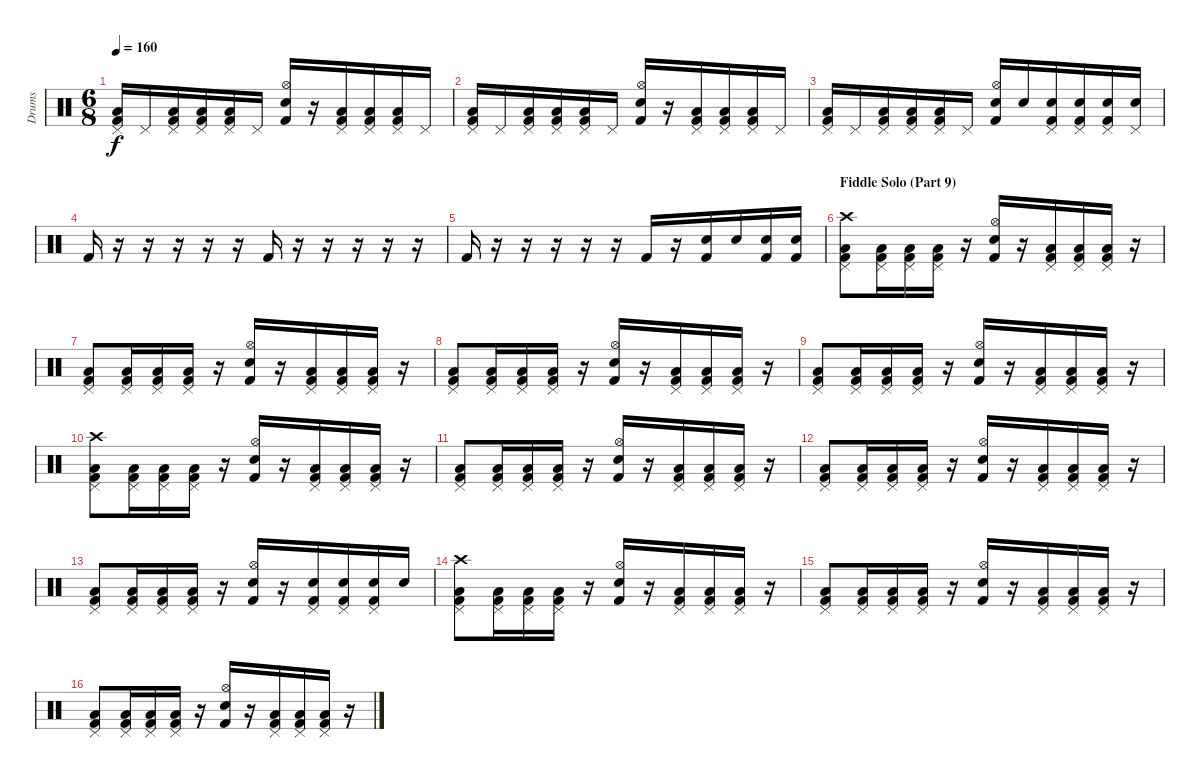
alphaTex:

\track ("Drums" "Drums") {instrument percussion}
\staff {score}
\articulation defaults
\ts (6 8)
\tempo 160
\clef neutral
\ks c
("Pedal Hi-Hat (hit)" "Low Floor Tom (hit)" "Kick (hit) 2").16{dy f} "Pedal Hi-Hat (hit)".16 ("Pedal Hi-Hat (hit)" "Low Floor Tom (hit)" "Kick (hit) 2").16 ("Pedal Hi-Hat (hit)" "Low Floor Tom (hit)" "Kick (hit) 2").16 ("Pedal Hi-Hat (hit)" "Low Floor Tom (hit)" "Kick (hit) 2").16 "Pedal Hi-Hat (hit)".16 ("Hi-Hat (open)" "Snare (hit) 2" "Kick (hit) 2").16 r.16 ("Pedal Hi-Hat (hit)" "Low Floor Tom (hit)" "Kick (hit) 2").16 ("Pedal Hi-Hat (hit)" "Low Floor Tom (hit)" "Kick (hit) 2").16 ("Pedal Hi-Hat (hit)" "Low Floor Tom (hit)" "Kick (hit) 2").16 "Pedal Hi-Hat (hit)".16 |
("Pedal Hi-Hat (hit)" "Low Floor Tom (hit)" "Kick (hit) 2").16 "Pedal Hi-Hat (hit)".16 ("Pedal Hi-Hat (hit)" "Low Floor Tom (hit)" "Kick (hit) 2").16 ("Pedal Hi-Hat (hit)" "Low Floor Tom (hit)" "Kick (hit) 2").16 ("Pedal Hi-Hat (hit)" "Low Floor Tom (hit)" "Kick (hit) 2").16 "Pedal Hi-Hat (hit)".16 ("Hi-Hat (open)" "Snare (hit) 2" "Kick (hit) 2").16 r.16 ("Pedal Hi-Hat (hit)" "Low Floor Tom (hit)" "Kick (hit) 2").16 ("Pedal Hi-Hat (hit)" "Low Floor Tom (hit)" "Kick (hit) 2").16 ("Pedal Hi-Hat (hit)" "Low Floor Tom (hit)" "Kick (hit) 2").16 "Pedal Hi-Hat (hit)".16 |
("Pedal Hi-Hat (hit)" "Low Floor Tom (hit)" "Kick (hit) 2").16 "Pedal Hi-Hat (hit)".16 ("Pedal Hi-Hat (hit)" "Low Floor Tom (hit)" "Kick (hit) 2").16 ("Pedal Hi-Hat (hit)" "Low Floor Tom (hit)" "Kick (hit) 2").16 ("Pedal Hi-Hat (hit)" "Low Floor Tom (hit)" "Kick (hit) 2").16 "Pedal Hi-Hat (hit)".16 ("Hi-Hat (open)" "Electric Snare (hit)" "Kick (hit) 2").16 "Electric Snare (hit)".16 ("Pedal Hi-Hat (hit)" "Electric Snare (hit)" "Kick (hit) 2").16 ("Pedal Hi-Hat (hit)" "Electric Snare (hit)" "Kick (hit) 2").16 ("Pedal Hi-Hat (hit)" "Electric Snare (hit)" "Kick (hit) 2").16 ("Pedal Hi-Hat (hit)" "Electric Snare (hit)").16 |
"Kick (hit) 2".16 r.16 r.16 r.16 r.16 r.16 "Kick (hit) 2".16 r.16 r.16 r.16 r.16 r.16 |
"Kick (hit) 2".16 r.16 r.16 r.16 r.16 r.16 "Kick (hit) 2".16 r.16 ("Electric Snare (hit)" "Kick (hit) 2").16 "Electric Snare (hit)".16 ("Electric Snare (hit)" "Kick (hit) 2").16 ("Electric Snare (hit)" "Kick (hit) 2").16 |
\section ("" "Fiddle Solo (Part 9)")
("Crash high (hit)" "Pedal Hi-Hat (hit)" "Low Floor Tom (hit)" "Kick (hit) 2").8 ("Pedal Hi-Hat (hit)" "Low Floor Tom (hit)" "Kick (hit) 2").16 ("Pedal Hi-Hat (hit)" "Low Floor Tom (hit)" "Kick (hit) 2").16 ("Pedal Hi-Hat (hit)" "Low Floor Tom (hit)" "Kick (hit) 2").16 r.16 ("Hi-Hat (open)" "Snare (hit) 2" "Kick (hit) 2").16 r.16 ("Pedal Hi-Hat (hit)" "Low Floor Tom (hit)" "Kick (hit) 2").16 ("Pedal Hi-Hat (hit)" "Low Floor Tom (hit)" "Kick (hit) 2").16 ("Pedal Hi-Hat (hit)" "Low Floor Tom (hit)" "Kick (hit) 2").16 r.16 |
("Pedal Hi-Hat (hit)" "Low Floor Tom (hit)" "Kick (hit) 2").8 ("Pedal Hi-Hat (hit)" "Low Floor Tom (hit)" "Kick (hit) 2").16 ("Pedal Hi-Hat (hit)" "Low Floor Tom (hit)" "Kick (hit) 2").16 ("Pedal Hi-Hat (hit)" "Low Floor Tom (hit)" "Kick (hit) 2").16 r.16 ("Hi-Hat (open)" "Snare (hit) 2" "Kick (hit) 2").16 r.16 ("Pedal Hi-Hat (hit)" "Low Floor Tom (hit)" "Kick (hit) 2").16 ("Pedal Hi-Hat (hit)" "Low Floor Tom (hit)" "Kick (hit) 2").16 ("Pedal Hi-Hat (hit)" "Low Floor Tom (hit)" "Kick (hit) 2").16 r.16 |
("Pedal Hi-Hat (hit)" "Low Floor Tom (hit)" "Kick (hit) 2").8 ("Pedal Hi-Hat (hit)" "Low Floor Tom (hit)" "Kick (hit) 2").16 ("Pedal Hi-Hat (hit)" "Low Floor Tom (hit)" "Kick (hit) 2").16 ("Pedal Hi-Hat (hit)" "Low Floor Tom (hit)" "Kick (hit) 2").16 r.16 ("Hi-Hat (open)" "Snare (hit) 2" "Kick (hit) 2").16 r.16 ("Pedal Hi-Hat (hit)" "Low Floor Tom (hit)" "Kick (hit) 2").16 ("Pedal Hi-Hat (hit)" "Low Floor Tom (hit)" "Kick (hit) 2").16 ("Pedal Hi-Hat (hit)" "Low Floor Tom (hit)" "Kick (hit) 2").16 r.16 |
("Pedal Hi-Hat (hit)" "Low Floor Tom (hit)" "Kick (hit) 2").8 ("Pedal Hi-Hat (hit)" "Low Floor Tom (hit)" "Kick (hit) 2").16 ("Pedal Hi-Hat (hit)" "Low Floor Tom (hit)" "Kick (hit) 2").16 ("Pedal Hi-Hat (hit)" "Low Floor Tom (hit)" "Kick (hit) 2").16 r.16 ("Hi-Hat (open)" "Snare (hit) 2" "Kick (hit) 2").16 r.16 ("Pedal Hi-Hat (hit)" "Low Floor Tom (hit)" "Kick (hit) 2").16 ("Pedal Hi-Hat (hit)" "Low Floor Tom (hit)" "Kick (hit) 2").16 ("Pedal Hi-Hat (hit)" "Low Floor Tom (hit)" "Kick (hit) 2").16 r.16 |
("Crash high (hit)" "Pedal Hi-Hat (hit)" "Low Floor Tom (hit)" "Kick (hit) 2").8 ("Pedal Hi-Hat (hit)" "Low Floor Tom (hit)" "Kick (hit) 2").16 ("Pedal Hi-Hat (hit)" "Low Floor Tom (hit)" "Kick (hit) 2").16 ("Pedal Hi-Hat (hit)" "Low Floor Tom (hit)" "Kick (hit) 2").16 r.16 ("Hi-Hat (open)" "Snare (hit) 2" "Kick (hit) 2").16 r.16 ("Pedal Hi-Hat (hit)" "Low Floor Tom (hit)" "Kick (hit) 2").16 ("Pedal Hi-Hat (hit)" "Low Floor Tom (hit)" "Kick (hit) 2").16 ("Pedal Hi-Hat (hit)" "Low Floor Tom (hit)" "Kick (hit) 2").16 r.16 |
("Pedal Hi-Hat (hit)" "Low Floor Tom (hit)" "Kick (hit) 2").8 ("Pedal Hi-Hat (hit)" "Low Floor Tom (hit)" "Kick (hit) 2").16 ("Pedal Hi-Hat (hit)" "Low Floor Tom (hit)" "Kick (hit) 2").16 ("Pedal Hi-Hat (hit)" "Low Floor Tom (hit)" "Kick (hit) 2").16 r.16 ("Hi-Hat (open)" "Snare (hit) 2" "Kick (hit) 2").16 r.16 ("Pedal Hi-Hat (hit)" "Low Floor Tom (hit)" "Kick (hit) 2").16 ("Pedal Hi-Hat (hit)" "Low Floor Tom (hit)" "Kick (hit) 2").16 ("Pedal Hi-Hat (hit)" "Low Floor Tom (hit)" "Kick (hit) 2").16 r.16 |
("Pedal Hi-Hat (hit)" "Low Floor Tom (hit)" "Kick (hit) 2").8 ("Pedal Hi-Hat (hit)" "Low Floor Tom (hit)" "Kick (hit) 2").16 ("Pedal Hi-Hat (hit)" "Low Floor Tom (hit)" "Kick (hit) 2").16 ("Pedal Hi-Hat (hit)" "Low Floor Tom (hit)" "Kick (hit) 2").16 r.16 ("Hi-Hat (open)" "Snare (hit) 2" "Kick (hit) 2").16 r.16 ("Pedal Hi-Hat (hit)" "Low Floor Tom (hit)" "Kick (hit) 2").16 ("Pedal Hi-Hat (hit)" "Low Floor Tom (hit)" "Kick (hit) 2").16 ("Pedal Hi-Hat (hit)" "Low Floor Tom (hit)" "Kick (hit) 2").16 r.16 |
("Pedal Hi-Hat (hit)" "Low Floor Tom (hit)" "Kick (hit) 2").8 ("Pedal Hi-Hat (hit)" "Low Floor Tom (hit)" "Kick (hit) 2").16 ("Pedal Hi-Hat (hit)" "Low Floor Tom (hit)" "Kick (hit) 2").16 ("Pedal Hi-Hat (hit)" "Low Floor Tom (hit)" "Kick (hit) 2").16 r.16 ("Hi-Hat (open)" "Snare (hit) 2" "Kick (hit) 2").16 r.16 ("Pedal Hi-Hat (hit)" "Snare (hit) 2" "Kick (hit) 2").16 ("Pedal Hi-Hat (hit)" "Snare (hit) 2" "Kick (hit) 2").16 ("Pedal Hi-Hat (hit)" "Snare (hit) 2" "Kick (hit) 2").16 "Snare (hit) 2".16 |
("Crash high (hit)" "Pedal Hi-Hat (hit)" "Low Floor Tom (hit)" "Kick (hit) 2").8 ("Pedal Hi-Hat (hit)" "Low Floor Tom (hit)" "Kick (hit) 2").16 ("Pedal Hi-Hat (hit)" "Low Floor Tom (hit)" "Kick (hit) 2").16 ("Pedal Hi-Hat (hit)" "Low Floor Tom (hit)" "Kick (hit) 2").16 r.16 ("Hi-Hat (open)" "Snare (hit) 2" "Kick (hit) 2").16 r.16 ("Pedal Hi-Hat (hit)" "Low Floor Tom (hit)" "Kick (hit) 2").16 ("Pedal Hi-Hat (hit)" "Low Floor Tom (hit)" "Kick (hit) 2").16 ("Pedal Hi-Hat (hit)" "Low Floor Tom (hit)" "Kick (hit) 2").16 r.16 |
("Pedal Hi-Hat (hit)" "Low Floor Tom (hit)" "Kick (hit) 2").8 ("Pedal Hi-Hat (hit)" "Low Floor Tom (hit)" "Kick (hit) 2").16 ("Pedal Hi-Hat (hit)" "Low Floor Tom (hit)" "Kick (hit) 2").16 ("Pedal Hi-Hat (hit)" "Low Floor Tom (hit)" "Kick (hit) 2").16 r.16 ("Hi-Hat (open)" "Snare (hit) 2" "Kick (hit) 2").16 r.16 ("Pedal Hi-Hat (hit)" "Low Floor Tom (hit)" "Kick (hit) 2").16 ("Pedal Hi-Hat (hit)" "Low Floor Tom (hit)" "Kick (hit) 2").16 ("Pedal Hi-Hat (hit)" "Low Floor Tom (hit)" "Kick (hit) 2").16 r.16 |
("Pedal Hi-Hat (hit)" "Low Floor Tom (hit)" "Kick (hit) 2").8 ("Pedal Hi-Hat (hit)" "Low Floor Tom (hit)" "Kick (hit) 2").16 ("Pedal Hi-Hat (hit)" "Low Floor Tom (hit)" "Kick (hit) 2").16 ("Pedal Hi-Hat (hit)" "Low Floor Tom (hit)" "Kick (hit) 2").16 r.16 ("Hi-Hat (open)" "Snare (hit) 2" "Kick (hit) 2").16 r.16 ("Pedal Hi-Hat (hit)" "Low Floor Tom (hit)" "Kick (hit) 2").16 ("Pedal Hi-Hat (hit)" "Low Floor Tom (hit)" "Kick (hit) 2").16 ("Pedal Hi-Hat (hit)" "Low Floor Tom (hit)" "Kick (hit) 2").16 r.16
